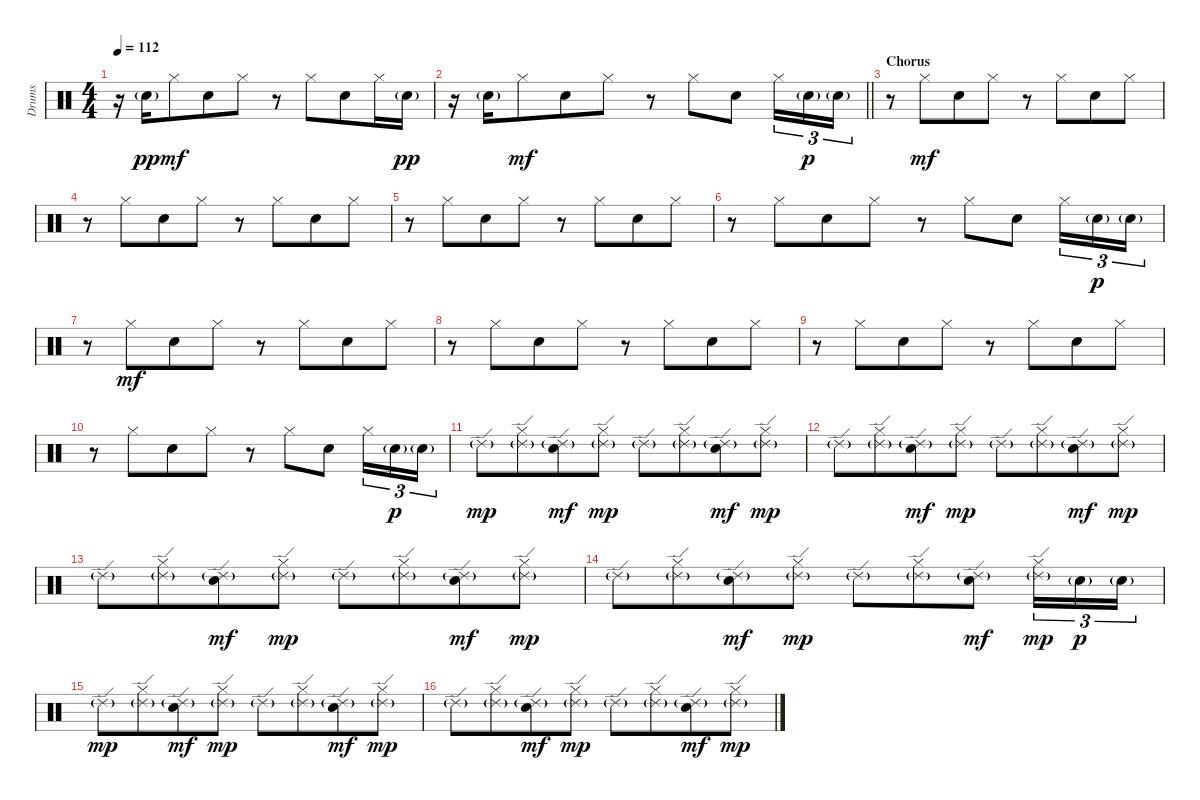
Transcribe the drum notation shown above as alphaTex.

\track ("Drums" "Drums") {instrument percussion}
\staff {score}
\articulation defaults
\ts (4 4)
\tempo 112
\clef neutral
\ks c
r.16{dy pp} "Electric Snare (hit)"{g}.16 "Hi-Hat (closed)".8{dy mf beam merge} "Electric Snare (hit)".8 "Hi-Hat (closed)".8 r.8 "Hi-Hat (closed)".8{beam merge} "Electric Snare (hit)".8 "Hi-Hat (closed)".16 "Electric Snare (hit)"{g}.16{dy pp} |
\barLineRight lightlight
r.16 "Electric Snare (hit)"{g}.16 "Hi-Hat (closed)".8{dy mf beam merge} "Electric Snare (hit)".8 "Hi-Hat (closed)".8 r.8 "Hi-Hat (closed)".8{beam merge} "Electric Snare (hit)".8 "Hi-Hat (closed)".16{tu (3 2)} "Electric Snare (hit)"{g}.16{tu (3 2) dy p} "Electric Snare (hit)"{g}.16{tu (3 2)} |
\section ("" "Chorus")
r.8 "Hi-Hat (closed)".8{dy mf beam merge} "Electric Snare (hit)".8 "Hi-Hat (closed)".8 r.8 "Hi-Hat (closed)".8{beam merge} "Electric Snare (hit)".8 "Hi-Hat (closed)".8 |
r.8 "Hi-Hat (closed)".8{beam merge} "Electric Snare (hit)".8 "Hi-Hat (closed)".8 r.8 "Hi-Hat (closed)".8{beam merge} "Electric Snare (hit)".8 "Hi-Hat (closed)".8 |
r.8 "Hi-Hat (closed)".8{beam merge} "Electric Snare (hit)".8 "Hi-Hat (closed)".8 r.8 "Hi-Hat (closed)".8{beam merge} "Electric Snare (hit)".8 "Hi-Hat (closed)".8 |
r.8 "Hi-Hat (closed)".8{beam merge} "Electric Snare (hit)".8 "Hi-Hat (closed)".8 r.8 "Hi-Hat (closed)".8{beam merge} "Electric Snare (hit)".8 "Hi-Hat (closed)".16{tu (3 2)} "Electric Snare (hit)"{g}.16{tu (3 2) dy p} "Electric Snare (hit)"{g}.16{tu (3 2)} |
r.8 "Hi-Hat (closed)".8{dy mf beam merge} "Electric Snare (hit)".8 "Hi-Hat (closed)".8 r.8 "Hi-Hat (closed)".8{beam merge} "Electric Snare (hit)".8 "Hi-Hat (closed)".8 |
r.8 "Hi-Hat (closed)".8{beam merge} "Electric Snare (hit)".8 "Hi-Hat (closed)".8 r.8 "Hi-Hat (closed)".8{beam merge} "Electric Snare (hit)".8 "Hi-Hat (closed)".8 |
r.8 "Hi-Hat (closed)".8{beam merge} "Electric Snare (hit)".8 "Hi-Hat (closed)".8 r.8 "Hi-Hat (closed)".8{beam merge} "Electric Snare (hit)".8 "Hi-Hat (closed)".8 |
r.8 "Hi-Hat (closed)".8{beam merge} "Electric Snare (hit)".8 "Hi-Hat (closed)".8 r.8 "Hi-Hat (closed)".8{beam merge} "Electric Snare (hit)".8 "Hi-Hat (closed)".16{tu (3 2)} "Electric Snare (hit)"{g}.16{tu (3 2) dy p} "Electric Snare (hit)"{g}.16{tu (3 2)} |
"Ride (edge) 2"{g}.8{dy mp} ("Hi-Hat (closed)" "Ride (edge) 2"{g}).8{beam merge} ("Ride (edge) 2"{g} "Electric Snare (hit)").8{dy mf} ("Hi-Hat (closed)" "Ride (edge) 2"{g}).8{dy mp} "Ride (edge) 2"{g}.8 ("Hi-Hat (closed)" "Ride (edge) 2"{g}).8{beam merge} ("Ride (edge) 2"{g} "Electric Snare (hit)").8{dy mf} ("Hi-Hat (closed)" "Ride (edge) 2"{g}).8{dy mp} |
"Ride (edge) 2"{g}.8 ("Hi-Hat (closed)" "Ride (edge) 2"{g}).8{beam merge} ("Ride (edge) 2"{g} "Electric Snare (hit)").8{dy mf} ("Hi-Hat (closed)" "Ride (edge) 2"{g}).8{dy mp} "Ride (edge) 2"{g}.8 ("Hi-Hat (closed)" "Ride (edge) 2"{g}).8{beam merge} ("Ride (edge) 2"{g} "Electric Snare (hit)").8{dy mf} ("Hi-Hat (closed)" "Ride (edge) 2"{g}).8{dy mp} |
"Ride (edge) 2"{g}.8 ("Hi-Hat (closed)" "Ride (edge) 2"{g}).8{beam merge} ("Ride (edge) 2"{g} "Electric Snare (hit)").8{dy mf} ("Hi-Hat (closed)" "Ride (edge) 2"{g}).8{dy mp} "Ride (edge) 2"{g}.8 ("Hi-Hat (closed)" "Ride (edge) 2"{g}).8{beam merge} ("Ride (edge) 2"{g} "Electric Snare (hit)").8{dy mf} ("Hi-Hat (closed)" "Ride (edge) 2"{g}).8{dy mp} |
"Ride (edge) 2"{g}.8 ("Hi-Hat (closed)" "Ride (edge) 2"{g}).8{beam merge} ("Ride (edge) 2"{g} "Electric Snare (hit)").8{dy mf} ("Hi-Hat (closed)" "Ride (edge) 2"{g}).8{dy mp} "Ride (edge) 2"{g}.8 ("Hi-Hat (closed)" "Ride (edge) 2"{g}).8{beam merge} ("Ride (edge) 2"{g} "Electric Snare (hit)").8{dy mf} ("Hi-Hat (closed)" "Ride (edge) 2"{g}).16{tu (3 2) dy mp} "Electric Snare (hit)"{g}.16{tu (3 2) dy p} "Electric Snare (hit)"{g}.16{tu (3 2)} |
"Ride (edge) 2"{g}.8{dy mp} ("Hi-Hat (closed)" "Ride (edge) 2"{g}).8{beam merge} ("Ride (edge) 2"{g} "Electric Snare (hit)").8{dy mf} ("Hi-Hat (closed)" "Ride (edge) 2"{g}).8{dy mp} "Ride (edge) 2"{g}.8 ("Hi-Hat (closed)" "Ride (edge) 2"{g}).8{beam merge} ("Ride (edge) 2"{g} "Electric Snare (hit)").8{dy mf} ("Hi-Hat (closed)" "Ride (edge) 2"{g}).8{dy mp} |
"Ride (edge) 2"{g}.8 ("Hi-Hat (closed)" "Ride (edge) 2"{g}).8{beam merge} ("Ride (edge) 2"{g} "Electric Snare (hit)").8{dy mf} ("Hi-Hat (closed)" "Ride (edge) 2"{g}).8{dy mp} "Ride (edge) 2"{g}.8 ("Hi-Hat (closed)" "Ride (edge) 2"{g}).8{beam merge} ("Ride (edge) 2"{g} "Electric Snare (hit)").8{dy mf} ("Hi-Hat (closed)" "Ride (edge) 2"{g}).8{dy mp}
